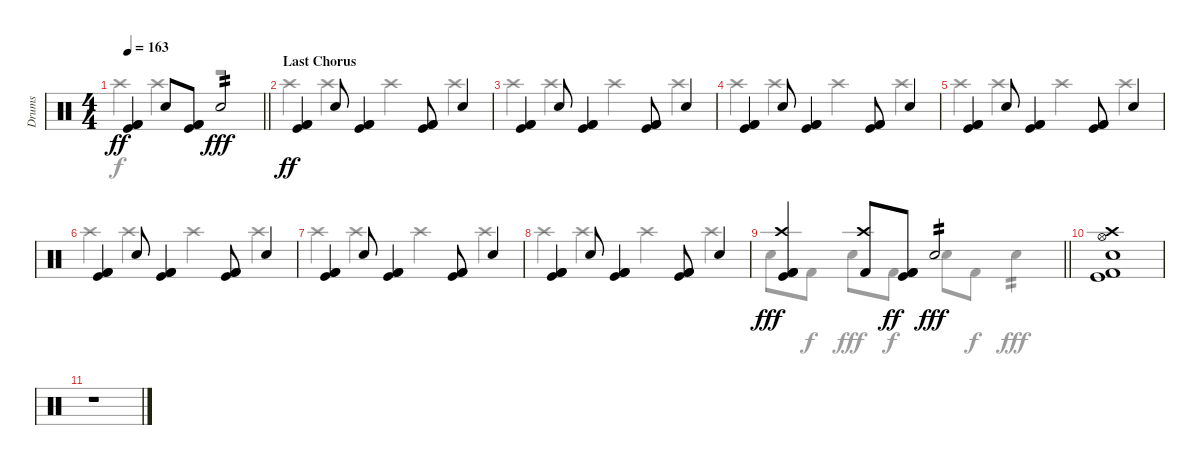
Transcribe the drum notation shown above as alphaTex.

\track ("Drums" "Drums") {instrument percussion}
\staff {score}
\articulation defaults
\voice
\ts (4 4)
\tempo 163
\clef neutral
\barLineRight lightlight
\ks c
("Kick (hit) 2" "Kick (hit) 2" "Kick (hit)").4{dy ff} "Electric Snare (hit)".8 ("Kick (hit) 2" "Kick (hit) 2" "Kick (hit)").8 "Electric Snare (hit)".2{tp 2 dy fff} |
\section ("" "Last Chorus")
("Kick (hit) 2" "Kick (hit) 2" "Kick (hit)").4{dy ff} "Electric Snare (hit)".8 ("Kick (hit) 2" "Kick (hit) 2" "Kick (hit)").4 ("Kick (hit) 2" "Kick (hit) 2" "Kick (hit)").8 "Electric Snare (hit)".4 |
("Kick (hit) 2" "Kick (hit) 2" "Kick (hit)").4 "Electric Snare (hit)".8 ("Kick (hit) 2" "Kick (hit) 2" "Kick (hit)").4 ("Kick (hit) 2" "Kick (hit) 2" "Kick (hit)").8 "Electric Snare (hit)".4 |
("Kick (hit) 2" "Kick (hit) 2" "Kick (hit)").4 "Electric Snare (hit)".8 ("Kick (hit) 2" "Kick (hit) 2" "Kick (hit)").4 ("Kick (hit) 2" "Kick (hit) 2" "Kick (hit)").8 "Electric Snare (hit)".4 |
("Kick (hit) 2" "Kick (hit) 2" "Kick (hit)").4 "Electric Snare (hit)".8 ("Kick (hit) 2" "Kick (hit) 2" "Kick (hit)").4 ("Kick (hit) 2" "Kick (hit) 2" "Kick (hit)").8 "Electric Snare (hit)".4 |
("Kick (hit) 2" "Kick (hit) 2" "Kick (hit)").4 "Electric Snare (hit)".8 ("Kick (hit) 2" "Kick (hit) 2" "Kick (hit)").4 ("Kick (hit) 2" "Kick (hit) 2" "Kick (hit)").8 "Electric Snare (hit)".4 |
("Kick (hit) 2" "Kick (hit) 2" "Kick (hit)").4 "Electric Snare (hit)".8 ("Kick (hit) 2" "Kick (hit) 2" "Kick (hit)").4 ("Kick (hit) 2" "Kick (hit) 2" "Kick (hit)").8 "Electric Snare (hit)".4 |
("Kick (hit) 2" "Kick (hit) 2" "Kick (hit)").4 "Electric Snare (hit)".8 ("Kick (hit) 2" "Kick (hit) 2" "Kick (hit)").4 ("Kick (hit) 2" "Kick (hit) 2" "Kick (hit)").8 "Electric Snare (hit)".4 |
\barLineRight lightlight
("Kick (hit) 2" "Kick (hit) 2" "Kick (hit)" "Crash high (hit)").4{dy fff} ("Kick (hit) 2" "Crash high (hit)").8 ("Kick (hit) 2" "Kick (hit) 2" "Kick (hit)").8{dy ff} "Electric Snare (hit)".2{tp 2 dy fff} |
("Hi-Hat (open)" "Crash high (hit)" "Electric Snare (hit)" "Kick (hit) 2" "Kick (hit)").1 |
r.1
\voice
\clef neutral
\ottava regular
\simile none
\barLineRight lightlight
\ks c "Crash high (hit)".4{dy f} "Crash high (hit)".4
r.2 |
"Crash high (hit)".4 "Crash high (hit)".4 "Crash high (hit)".4 "Crash high (hit)".4 |
"Crash high (hit)".4 "Crash high (hit)".4 "Crash high (hit)".4 "Crash high (hit)".4 |
"Crash high (hit)".4 "Crash high (hit)".4 "Crash high (hit)".4 "Crash high (hit)".4 |
"Crash high (hit)".4 "Crash high (hit)".4 "Crash high (hit)".4 "Crash high (hit)".4 |
"Crash high (hit)".4 "Crash high (hit)".4 "Crash high (hit)".4 "Crash high (hit)".4 |
"Crash high (hit)".4 "Crash high (hit)".4 "Crash high (hit)".4 "Crash high (hit)".4 |
"Crash high (hit)".4 "Crash high (hit)".4 "Crash high (hit)".4 "Crash high (hit)".4 |
\barLineRight lightlight "Electric Snare (hit)".8{dy fff} "Kick (hit) 2".8{dy f} "Electric Snare (hit)".8{dy fff} "Kick (hit) 2".8{dy f} "Electric Snare (hit)".8{dy fff} "Kick (hit) 2".8{dy f} "Electric Snare (hit)".4{tp 2 dy fff}
|
|
